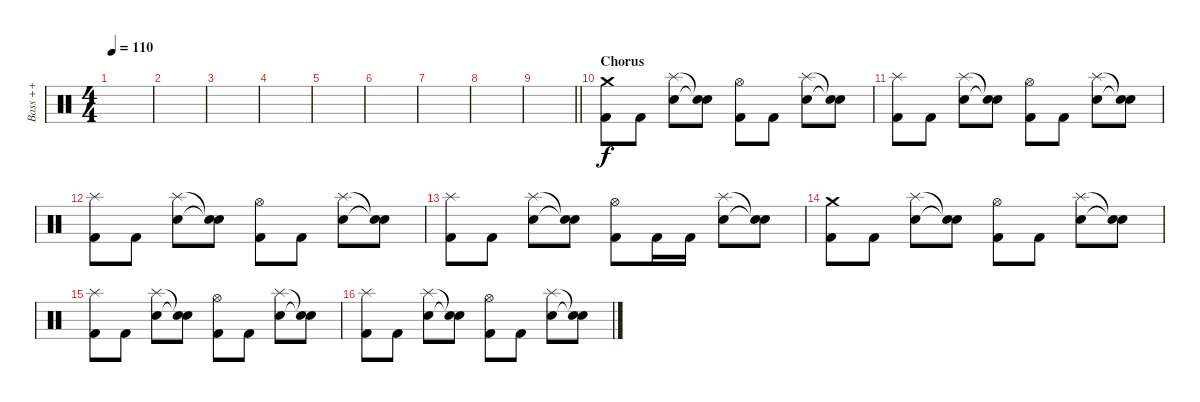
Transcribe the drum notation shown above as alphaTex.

\track ("  Bass ++" "  Bass ++") {instrument percussion}
\staff {score}
\articulation defaults
\ts (4 4)
\tempo 110
\clef neutral
\ks c
|
|
|
|
|
|
|
|
\barLineRight lightlight
|
\section ("" "Chorus")
("Crash medium (hit)" "Kick (hit) 2").8 "Kick (hit) 2".8 ("Splash (hit)" "Snare (hit) 2").8 ("Snare (hit)"{t} "Snare (hit)"{t}).8 ("Hi-Hat (open)" "Kick (hit) 2").8 "Kick (hit) 2".8 ("Splash (hit)" "Snare (hit) 2").8 ("Snare (hit)"{t} "Snare (hit)"{t}).8 |
("Splash (hit)" "Kick (hit) 2").8 "Kick (hit) 2".8 ("Splash (hit)" "Snare (hit) 2").8 ("Snare (hit)"{t} "Snare (hit)"{t}).8 ("Hi-Hat (open)" "Kick (hit) 2").8 "Kick (hit) 2".8 ("Splash (hit)" "Snare (hit) 2").8 ("Snare (hit)"{t} "Snare (hit)"{t}).8 |
("Splash (hit)" "Kick (hit) 2").8 "Kick (hit) 2".8 ("Splash (hit)" "Snare (hit) 2").8 ("Snare (hit)"{t} "Snare (hit)"{t}).8 ("Hi-Hat (open)" "Kick (hit) 2").8 "Kick (hit) 2".8 ("Splash (hit)" "Snare (hit) 2").8 ("Snare (hit)"{t} "Snare (hit)"{t}).8 |
("Splash (hit)" "Kick (hit) 2").8 "Kick (hit) 2".8 ("Splash (hit)" "Snare (hit) 2").8 ("Snare (hit)"{t} "Snare (hit)"{t}).8 ("Hi-Hat (open)" "Kick (hit) 2").8 "Kick (hit) 2".16 "Kick (hit) 2".16 ("Splash (hit)" "Snare (hit) 2").8 ("Snare (hit)"{t} "Snare (hit)"{t}).8 |
("Crash medium (hit)" "Kick (hit) 2").8 "Kick (hit) 2".8 ("Splash (hit)" "Snare (hit) 2").8 ("Snare (hit)"{t} "Snare (hit)"{t}).8 ("Hi-Hat (open)" "Kick (hit) 2").8 "Kick (hit) 2".8 ("Splash (hit)" "Snare (hit) 2").8 ("Snare (hit)"{t} "Snare (hit)"{t}).8 |
("Splash (hit)" "Kick (hit) 2").8 "Kick (hit) 2".8 ("Splash (hit)" "Snare (hit) 2").8 ("Snare (hit)"{t} "Snare (hit)"{t}).8 ("Hi-Hat (open)" "Kick (hit) 2").8 "Kick (hit) 2".8 ("Splash (hit)" "Snare (hit) 2").8 ("Snare (hit)"{t} "Snare (hit)"{t}).8 |
("Splash (hit)" "Kick (hit) 2").8 "Kick (hit) 2".8 ("Splash (hit)" "Snare (hit) 2").8 ("Snare (hit)"{t} "Snare (hit)"{t}).8 ("Hi-Hat (open)" "Kick (hit) 2").8 "Kick (hit) 2".8 ("Splash (hit)" "Snare (hit) 2").8 ("Snare (hit)"{t} "Snare (hit)"{t}).8
